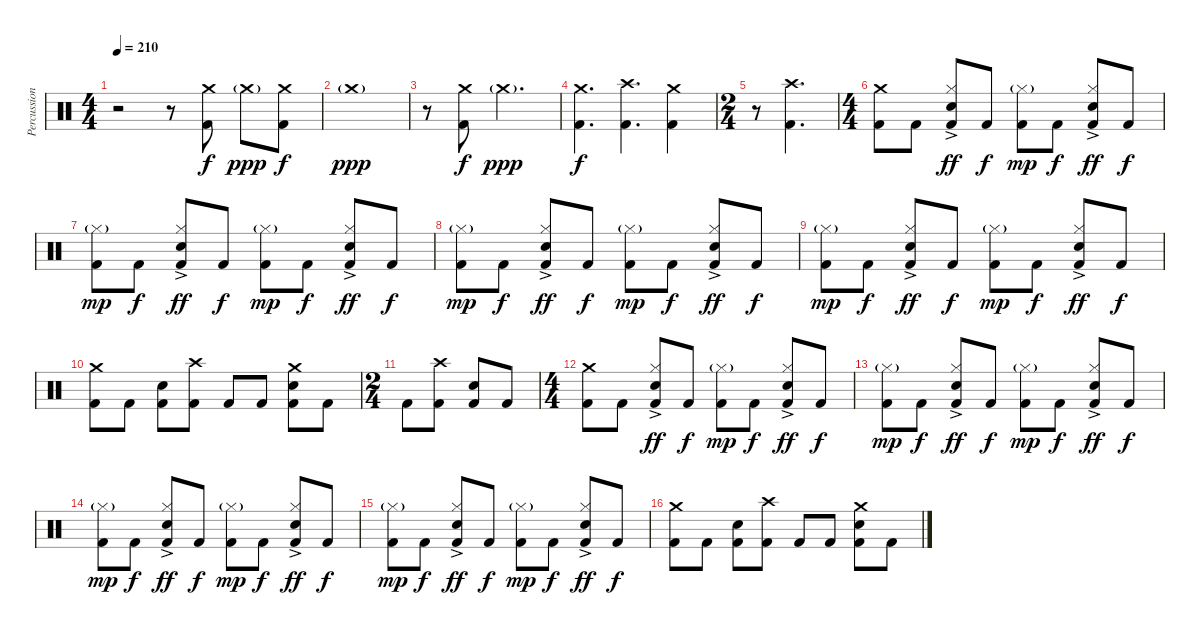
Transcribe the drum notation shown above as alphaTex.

\track ("Percussion" "Percussion") {instrument percussion}
\staff {score}
\articulation defaults
\ts (4 4)
\tempo 210
\clef neutral
\ks c
r.2{dy ppp} r.8 ("Crash medium (hit)" "Kick (hit) 2").8{dy f} "Crash medium (hit)"{g}.8{dy ppp} ("Crash medium (hit)" "Kick (hit) 2").8{dy f} |
"Crash medium (hit)"{g}.1{dy ppp} |
r.8 ("Crash medium (hit)" "Kick (hit) 2").8{dy f} "Crash medium (hit)"{g}.2{d dy ppp} |
("Crash medium (hit)" "Kick (hit) 2").4{d dy f} ("Crash high (hit)" "Kick (hit) 2").4{d} ("Crash medium (hit)" "Kick (hit) 2").4 |
\ts (2 4)
r.8 ("Crash high (hit)" "Kick (hit) 2").4{d} |
\ts (4 4)
("Crash medium (hit)" "Kick (hit) 2").8 "Kick (hit) 2".8 ("Hi-Hat (closed)"{ac} "Electric Snare (hit)" "Kick (hit) 2").8{dy ff} "Kick (hit) 2".8{dy f} ("Hi-Hat (closed)"{g} "Kick (hit) 2").8{dy mp} "Kick (hit) 2".8{dy f} ("Hi-Hat (closed)"{ac} "Electric Snare (hit)" "Kick (hit) 2").8{dy ff} "Kick (hit) 2".8{dy f} |
("Hi-Hat (closed)"{g} "Kick (hit) 2").8{dy mp} "Kick (hit) 2".8{dy f} ("Hi-Hat (closed)"{ac} "Electric Snare (hit)" "Kick (hit) 2").8{dy ff} "Kick (hit) 2".8{dy f} ("Hi-Hat (closed)"{g} "Kick (hit) 2").8{dy mp} "Kick (hit) 2".8{dy f} ("Hi-Hat (closed)"{ac} "Electric Snare (hit)" "Kick (hit) 2").8{dy ff} "Kick (hit) 2".8{dy f} |
("Hi-Hat (closed)"{g} "Kick (hit) 2").8{dy mp} "Kick (hit) 2".8{dy f} ("Hi-Hat (closed)"{ac} "Electric Snare (hit)" "Kick (hit) 2").8{dy ff} "Kick (hit) 2".8{dy f} ("Hi-Hat (closed)"{g} "Kick (hit) 2").8{dy mp} "Kick (hit) 2".8{dy f} ("Hi-Hat (closed)"{ac} "Electric Snare (hit)" "Kick (hit) 2").8{dy ff} "Kick (hit) 2".8{dy f} |
("Hi-Hat (closed)"{g} "Kick (hit) 2").8{dy mp} "Kick (hit) 2".8{dy f} ("Hi-Hat (closed)"{ac} "Electric Snare (hit)" "Kick (hit) 2").8{dy ff} "Kick (hit) 2".8{dy f} ("Hi-Hat (closed)"{g} "Kick (hit) 2").8{dy mp} "Kick (hit) 2".8{dy f} ("Hi-Hat (closed)"{ac} "Electric Snare (hit)" "Kick (hit) 2").8{dy ff} "Kick (hit) 2".8{dy f} |
("Crash medium (hit)" "Kick (hit) 2").8 "Kick (hit) 2".8 ("Electric Snare (hit)" "Kick (hit) 2").8 ("Crash high (hit)" "Kick (hit) 2").8 "Kick (hit) 2".8 "Kick (hit) 2".8 ("Crash medium (hit)" "Electric Snare (hit)" "Kick (hit) 2").8 "Kick (hit) 2".8 |
\ts (2 4)
"Kick (hit) 2".8 ("Crash high (hit)" "Kick (hit) 2").8 ("Electric Snare (hit)" "Kick (hit) 2").8 "Kick (hit) 2".8 |
\ts (4 4)
("Crash medium (hit)" "Kick (hit) 2").8 "Kick (hit) 2".8 ("Hi-Hat (closed)"{ac} "Electric Snare (hit)" "Kick (hit) 2").8{dy ff} "Kick (hit) 2".8{dy f} ("Hi-Hat (closed)"{g} "Kick (hit) 2").8{dy mp} "Kick (hit) 2".8{dy f} ("Hi-Hat (closed)"{ac} "Electric Snare (hit)" "Kick (hit) 2").8{dy ff} "Kick (hit) 2".8{dy f} |
("Hi-Hat (closed)"{g} "Kick (hit) 2").8{dy mp} "Kick (hit) 2".8{dy f} ("Hi-Hat (closed)"{ac} "Electric Snare (hit)" "Kick (hit) 2").8{dy ff} "Kick (hit) 2".8{dy f} ("Hi-Hat (closed)"{g} "Kick (hit) 2").8{dy mp} "Kick (hit) 2".8{dy f} ("Hi-Hat (closed)"{ac} "Electric Snare (hit)" "Kick (hit) 2").8{dy ff} "Kick (hit) 2".8{dy f} |
("Hi-Hat (closed)"{g} "Kick (hit) 2").8{dy mp} "Kick (hit) 2".8{dy f} ("Hi-Hat (closed)"{ac} "Electric Snare (hit)" "Kick (hit) 2").8{dy ff} "Kick (hit) 2".8{dy f} ("Hi-Hat (closed)"{g} "Kick (hit) 2").8{dy mp} "Kick (hit) 2".8{dy f} ("Hi-Hat (closed)"{ac} "Electric Snare (hit)" "Kick (hit) 2").8{dy ff} "Kick (hit) 2".8{dy f} |
("Hi-Hat (closed)"{g} "Kick (hit) 2").8{dy mp} "Kick (hit) 2".8{dy f} ("Hi-Hat (closed)"{ac} "Electric Snare (hit)" "Kick (hit) 2").8{dy ff} "Kick (hit) 2".8{dy f} ("Hi-Hat (closed)"{g} "Kick (hit) 2").8{dy mp} "Kick (hit) 2".8{dy f} ("Hi-Hat (closed)"{ac} "Electric Snare (hit)" "Kick (hit) 2").8{dy ff} "Kick (hit) 2".8{dy f} |
("Crash medium (hit)" "Kick (hit) 2").8 "Kick (hit) 2".8 ("Electric Snare (hit)" "Kick (hit) 2").8 ("Crash high (hit)" "Kick (hit) 2").8 "Kick (hit) 2".8 "Kick (hit) 2".8 ("Crash medium (hit)" "Electric Snare (hit)" "Kick (hit) 2").8 "Kick (hit) 2".8
